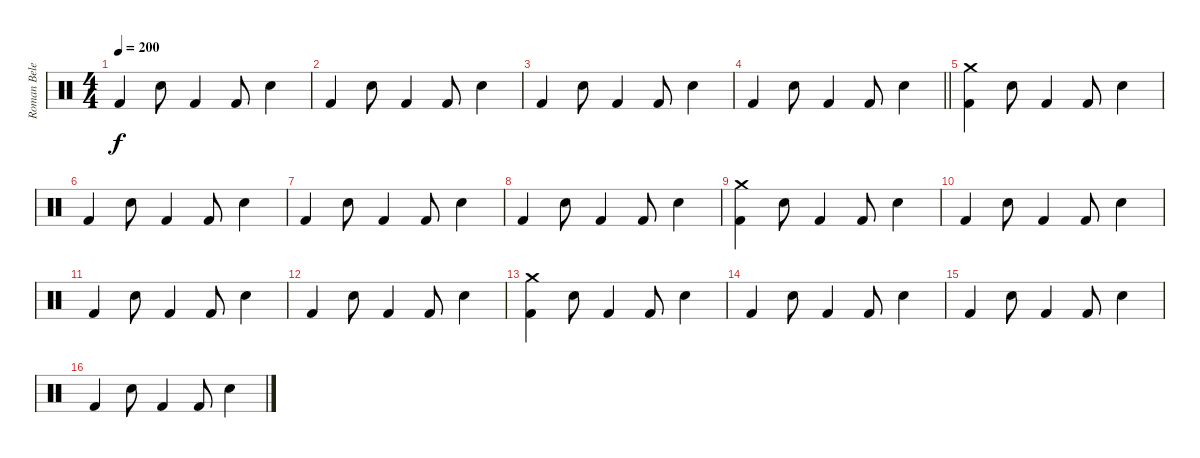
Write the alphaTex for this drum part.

\track ("Roman Belenkiy" "Roman Bele") {instrument percussion}
\staff {score}
\articulation defaults
\ts (4 4)
\tempo 200
\clef neutral
\ks c "Kick (hit) 2".4{dy f} "Snare (hit) 2".8 "Kick (hit) 2".4 "Kick (hit) 2".8 "Snare (hit) 2".4
|
"Kick (hit) 2".4 "Snare (hit) 2".8 "Kick (hit) 2".4 "Kick (hit) 2".8 "Snare (hit) 2".4 |
"Kick (hit) 2".4 "Snare (hit) 2".8 "Kick (hit) 2".4 "Kick (hit) 2".8 "Snare (hit) 2".4 |
\barLineRight lightlight "Kick (hit) 2".4 "Snare (hit) 2".8 "Kick (hit) 2".4 "Kick (hit) 2".8 "Snare (hit) 2".4
|
\section ("" "")
("Crash medium (hit)" "Kick (hit) 2").4 "Snare (hit) 2".8 "Kick (hit) 2".4 "Kick (hit) 2".8 "Snare (hit) 2".4 |
"Kick (hit) 2".4 "Snare (hit) 2".8 "Kick (hit) 2".4 "Kick (hit) 2".8 "Snare (hit) 2".4 |
"Kick (hit) 2".4 "Snare (hit) 2".8 "Kick (hit) 2".4 "Kick (hit) 2".8 "Snare (hit) 2".4 |
"Kick (hit) 2".4 "Snare (hit) 2".8 "Kick (hit) 2".4 "Kick (hit) 2".8 "Snare (hit) 2".4 |
("Crash medium (hit)" "Kick (hit) 2").4 "Snare (hit) 2".8 "Kick (hit) 2".4 "Kick (hit) 2".8 "Snare (hit) 2".4 |
"Kick (hit) 2".4 "Snare (hit) 2".8 "Kick (hit) 2".4 "Kick (hit) 2".8 "Snare (hit) 2".4 |
"Kick (hit) 2".4 "Snare (hit) 2".8 "Kick (hit) 2".4 "Kick (hit) 2".8 "Snare (hit) 2".4 |
"Kick (hit) 2".4 "Snare (hit) 2".8 "Kick (hit) 2".4 "Kick (hit) 2".8 "Snare (hit) 2".4 |
("Crash medium (hit)" "Kick (hit) 2").4 "Snare (hit) 2".8 "Kick (hit) 2".4 "Kick (hit) 2".8 "Snare (hit) 2".4 |
"Kick (hit) 2".4 "Snare (hit) 2".8 "Kick (hit) 2".4 "Kick (hit) 2".8 "Snare (hit) 2".4 |
"Kick (hit) 2".4 "Snare (hit) 2".8 "Kick (hit) 2".4 "Kick (hit) 2".8 "Snare (hit) 2".4 |
"Kick (hit) 2".4 "Snare (hit) 2".8 "Kick (hit) 2".4 "Kick (hit) 2".8 "Snare (hit) 2".4
